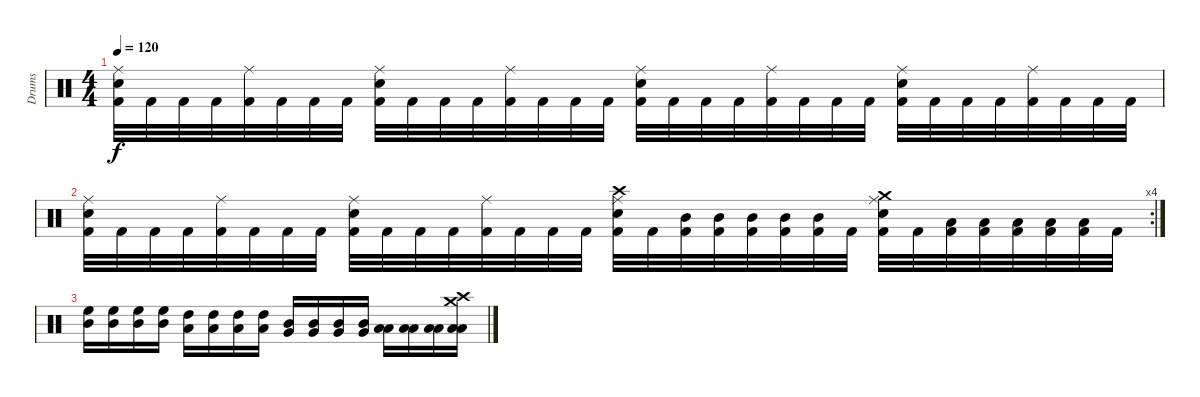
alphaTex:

\track ("Drums" "Drums") {instrument percussion}
\staff {score}
\articulation defaults
\ts (4 4)
\tempo 120
\clef neutral
\ks c
("Ride (middle)" "Snare (hit) 2" "Kick (hit) 2").32{dy f} "Kick (hit) 2".32 "Kick (hit) 2".32 "Kick (hit) 2".32 ("Ride (middle)" "Kick (hit) 2").32 "Kick (hit) 2".32 "Kick (hit) 2".32 "Kick (hit) 2".32 ("Ride (middle)" "Snare (hit) 2" "Kick (hit) 2").32 "Kick (hit) 2".32 "Kick (hit) 2".32 "Kick (hit) 2".32 ("Ride (middle)" "Kick (hit) 2").32 "Kick (hit) 2".32 "Kick (hit) 2".32 "Kick (hit) 2".32 ("Ride (middle)" "Snare (hit) 2" "Kick (hit) 2").32 "Kick (hit) 2".32 "Kick (hit) 2".32 "Kick (hit) 2".32 ("Ride (middle)" "Kick (hit) 2").32 "Kick (hit) 2".32 "Kick (hit) 2".32 "Kick (hit) 2".32 ("Ride (middle)" "Snare (hit) 2" "Kick (hit) 2").32 "Kick (hit) 2".32 "Kick (hit) 2".32 "Kick (hit) 2".32 ("Ride (middle)" "Kick (hit) 2").32 "Kick (hit) 2".32 "Kick (hit) 2".32 "Kick (hit) 2".32 |
\rc 4
("Ride (middle)" "Snare (hit) 2" "Kick (hit) 2").32 "Kick (hit) 2".32 "Kick (hit) 2".32 "Kick (hit) 2".32 ("Ride (middle)" "Kick (hit) 2").32 "Kick (hit) 2".32 "Kick (hit) 2".32 "Kick (hit) 2".32 ("Ride (middle)" "Snare (hit) 2" "Kick (hit) 2").32 "Kick (hit) 2".32 "Kick (hit) 2".32 "Kick (hit) 2".32 ("Ride (middle)" "Kick (hit) 2").32 "Kick (hit) 2".32 "Kick (hit) 2".32 "Kick (hit) 2".32 ("Crash high (hit)" "Ride (middle)" "Snare (hit) 2" "Kick (hit) 2").32 "Kick (hit) 2".32 ("Mid Tom (hit)" "Kick (hit) 2").32 ("Mid Tom (hit)" "Kick (hit) 2").32 ("Mid Tom (hit)" "Kick (hit) 2").32 ("Mid Tom (hit)" "Kick (hit) 2").32 ("Mid Tom (hit)" "Kick (hit) 2").32 "Kick (hit) 2".32 ("Crash medium (hit)" "Ride (middle)" "Snare (hit) 2" "Kick (hit) 2").32 "Kick (hit) 2".32 ("Low Tom (hit)" "Kick (hit) 2").32 ("Low Tom (hit)" "Kick (hit) 2").32 ("Low Tom (hit)" "Kick (hit) 2").32 ("Low Tom (hit)" "Kick (hit) 2").32 ("Low Tom (hit)" "Kick (hit) 2").32 "Kick (hit) 2".32 |
("High Floor Tom (hit)" "Mid Tom (hit)").16 ("High Floor Tom (hit)" "Mid Tom (hit)").16 ("High Floor Tom (hit)" "Mid Tom (hit)").16 ("High Floor Tom (hit)" "Mid Tom (hit)").16 ("High Tom (hit)" "Low Tom (hit)").16 ("High Tom (hit)" "Low Tom (hit)").16 ("High Tom (hit)" "Low Tom (hit)").16 ("High Tom (hit)" "Low Tom (hit)").16 ("Mid Tom (hit)" "Very Low Tom (hit)").16 ("Mid Tom (hit)" "Very Low Tom (hit)").16 ("Mid Tom (hit)" "Very Low Tom (hit)").16 ("Mid Tom (hit)" "Very Low Tom (hit)").16 ("Low Tom (hit)" "Low Floor Tom (hit)").16 ("Low Tom (hit)" "Low Floor Tom (hit)").16 ("Low Tom (hit)" "Low Floor Tom (hit)").16 ("Crash medium (hit)" "Crash high (hit)" "Low Tom (hit)" "Low Floor Tom (hit)").16
